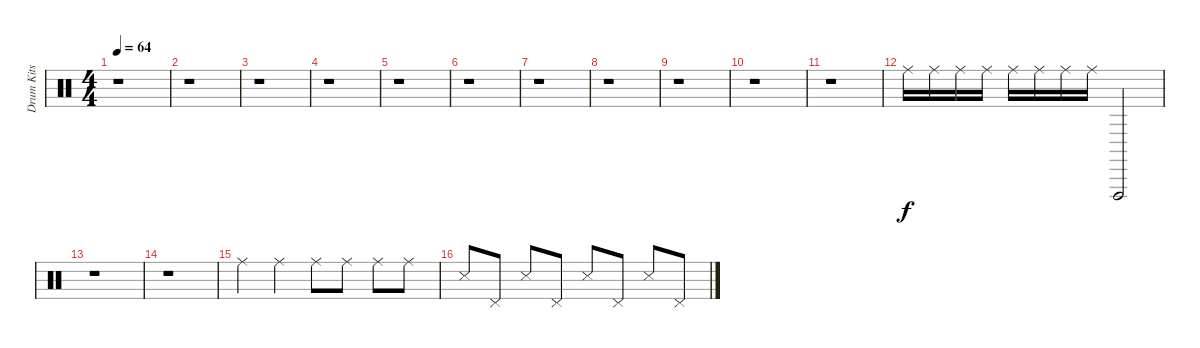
\track ("Drum Kits" "Drum Kits") {instrument percussion}
\staff {score}
\articulation defaults
\ts (4 4)
\tempo 64
\clef neutral
\ks c
r.1{dy f} |
r.1 |
r.1 |
r.1 |
r.1 |
r.1 |
r.1 |
r.1 |
r.1 |
r.1 |
r.1 |
"Ride (middle)".16 "Ride (middle)".16 "Ride (middle)".16 "Ride (middle)".16 "Ride (middle)".16 "Ride (middle)".16 "Ride (middle)".16 "Ride (middle)".16 "Vibraslap (hit)".2 |
r.1 |
r.1 |
"Ride (middle)".4 "Ride (middle)".4 "Ride (middle)".8 "Ride (middle)".8 "Ride (middle)".8 "Ride (middle)".8 |
"Snare (side stick) 3".8 "Pedal Hi-Hat (hit)".8 "Snare (side stick) 3".8 "Pedal Hi-Hat (hit)".8 "Snare (side stick) 3".8 "Pedal Hi-Hat (hit)".8 "Snare (side stick) 3".8 "Pedal Hi-Hat (hit)".8
